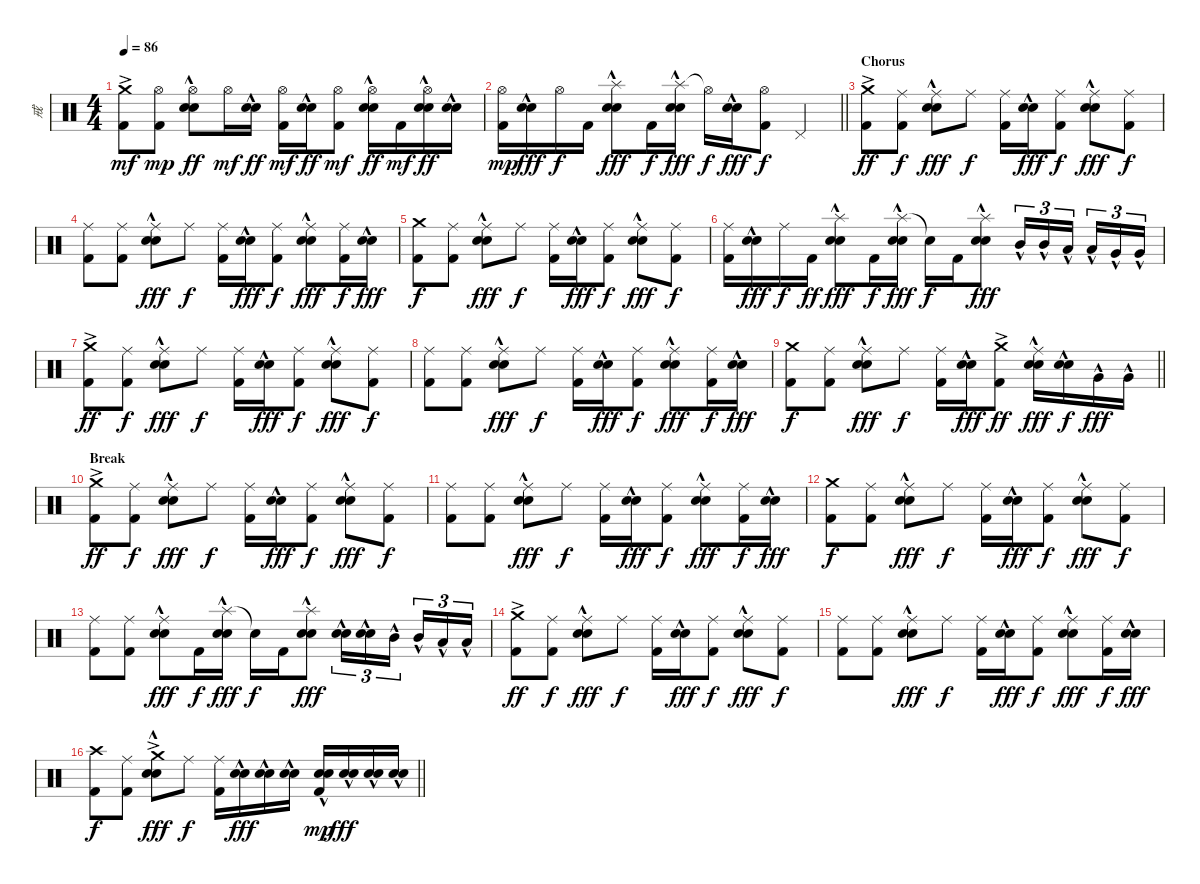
\track ("戒" "戒") {instrument percussion}
\staff {score}
\articulation defaults
\ts (4 4)
\tempo 86
\clef neutral
\ks c
("Crash medium (hit)"{ac} "Kick (hit) 2").8{dy mf} ("Hi-Hat (open)" "Kick (hit) 2").8{dy mp} ("Hi-Hat (open)" "Electric Snare (hit)"{hac} "Snare (hit) 2"{hac}).8{dy ff} "Hi-Hat (open)".16{dy mf} ("Electric Snare (hit)"{hac} "Snare (hit) 2"{hac}).16{dy ff} ("Hi-Hat (open)" "Kick (hit) 2").16{dy mf} ("Electric Snare (hit)"{hac} "Snare (hit) 2"{hac}).16{dy ff} ("Hi-Hat (open)" "Kick (hit) 2").8{dy mf} ("Hi-Hat (open)" "Electric Snare (hit)"{hac} "Snare (hit) 2"{hac}).16{dy ff} "Kick (hit) 2".16{dy mf} ("Hi-Hat (open)" "Electric Snare (hit)"{hac} "Snare (hit) 2"{hac}).16{dy ff} ("Electric Snare (hit)"{hac} "Snare (hit) 2"{hac}).16 |
\barLineRight lightlight
("Hi-Hat (open)" "Kick (hit) 2").16{dy mp} ("Electric Snare (hit)"{hac} "Snare (hit) 2"{hac}).16{dy fff} "Hi-Hat (open)".16{dy f} "Kick (hit) 2".16 ("Splash (hit)"{hac} "Electric Snare (hit)"{hac} "Snare (hit) 2"{hac}).8{dy fff} "Kick (hit) 2".16{dy f} ("Splash (hit)"{hac} "Electric Snare (hit)"{hac} "Snare (hit) 2"{hac}).16{dy fff} "Hi-Hat (open)"{t}.16{dy f} ("Electric Snare (hit)"{hac} "Snare (hit) 2"{hac}).16{dy fff} ("Hi-Hat (open)" "Kick (hit) 2").8{dy f} "Pedal Hi-Hat (hit)".4 |
\section ("" "Chorus")
("Crash medium (hit)"{ac} "Kick (hit) 2").8{dy ff} ("Ride (middle)" "Kick (hit) 2").8{dy f} ("Ride (middle)" "Electric Snare (hit)"{hac} "Snare (hit) 2"{hac}).8{dy fff} "Ride (middle)".8{dy f} ("Ride (middle)" "Kick (hit) 2").16 ("Electric Snare (hit)"{hac} "Snare (hit) 2"{hac}).16{dy fff} ("Ride (middle)" "Kick (hit) 2").8{dy f} ("Ride (middle)" "Electric Snare (hit)"{hac} "Snare (hit) 2"{hac}).8{dy fff} ("Ride (middle)" "Kick (hit) 2").8{dy f} |
("Ride (middle)" "Kick (hit) 2").8 ("Ride (middle)" "Kick (hit) 2").8 ("Ride (middle)" "Electric Snare (hit)"{hac} "Snare (hit) 2"{hac}).8{dy fff} "Ride (middle)".8{dy f} ("Ride (middle)" "Kick (hit) 2").16 ("Electric Snare (hit)"{hac} "Snare (hit) 2"{hac}).16{dy fff} ("Ride (middle)" "Kick (hit) 2").8{dy f} ("Ride (middle)" "Electric Snare (hit)"{hac} "Snare (hit) 2"{hac}).8{dy fff} ("Ride (middle)" "Kick (hit) 2").16{dy f} ("Electric Snare (hit)"{hac} "Snare (hit) 2"{hac}).16{dy fff} |
("Crash medium (hit)" "Kick (hit) 2").8{dy f} ("Ride (middle)" "Kick (hit) 2").8 ("Ride (middle)" "Electric Snare (hit)"{hac} "Snare (hit) 2"{hac}).8{dy fff} "Ride (middle)".8{dy f} ("Ride (middle)" "Kick (hit) 2").16 ("Electric Snare (hit)"{hac} "Snare (hit) 2"{hac}).16{dy fff} ("Ride (middle)" "Kick (hit) 2").8{dy f} ("Ride (middle)" "Electric Snare (hit)"{hac} "Snare (hit) 2"{hac}).8{dy fff} ("Ride (middle)" "Kick (hit) 2").8{dy f} |
("Ride (middle)" "Kick (hit) 2").16 ("Electric Snare (hit)"{hac} "Snare (hit) 2"{hac}).16{dy fff} "Ride (middle)".16{dy f} "Kick (hit) 2".16{dy ff} ("Splash (hit)"{hac} "Electric Snare (hit)"{hac} "Snare (hit) 2"{hac}).8{dy fff} "Kick (hit) 2".16{dy f} ("Splash (hit)"{hac} "Electric Snare (hit)"{hac} "Snare (hit) 2"{hac}).16{dy fff} "Snare (hit)"{t}.16{dy f} "Kick (hit) 2".16 ("Splash (hit)"{hac} "Electric Snare (hit)"{hac} "Snare (hit) 2"{hac}).8{dy fff} "Mid Tom (hit)"{hac}.16{tu (3 2)} "Mid Tom (hit)"{hac}.16{tu (3 2)} "Low Tom (hit)"{hac}.16{tu (3 2) beam splitsecondary} "Low Tom (hit)"{hac}.16{tu (3 2)} "Very Low Tom (hit)"{hac}.16{tu (3 2)} "Very Low Tom (hit)"{hac}.16{tu (3 2)} |
("Crash medium (hit)"{ac} "Kick (hit) 2").8{dy ff} ("Ride (middle)" "Kick (hit) 2").8{dy f} ("Ride (middle)" "Electric Snare (hit)"{hac} "Snare (hit) 2"{hac}).8{dy fff} "Ride (middle)".8{dy f} ("Ride (middle)" "Kick (hit) 2").16 ("Electric Snare (hit)"{hac} "Snare (hit) 2"{hac}).16{dy fff} ("Ride (middle)" "Kick (hit) 2").8{dy f} ("Ride (middle)" "Electric Snare (hit)"{hac} "Snare (hit) 2"{hac}).8{dy fff} ("Ride (middle)" "Kick (hit) 2").8{dy f} |
("Ride (middle)" "Kick (hit) 2").8 ("Ride (middle)" "Kick (hit) 2").8 ("Ride (middle)" "Electric Snare (hit)"{hac} "Snare (hit) 2"{hac}).8{dy fff} "Ride (middle)".8{dy f} ("Ride (middle)" "Kick (hit) 2").16 ("Electric Snare (hit)"{hac} "Snare (hit) 2"{hac}).16{dy fff} ("Ride (middle)" "Kick (hit) 2").8{dy f} ("Ride (middle)" "Electric Snare (hit)"{hac} "Snare (hit) 2"{hac}).8{dy fff} ("Ride (middle)" "Kick (hit) 2").16{dy f} ("Electric Snare (hit)"{hac} "Snare (hit) 2"{hac}).16{dy fff} |
\barLineRight lightlight
("Crash medium (hit)" "Kick (hit) 2").8{dy f} ("Ride (middle)" "Kick (hit) 2").8 ("Ride (middle)" "Electric Snare (hit)"{hac} "Snare (hit) 2"{hac}).8{dy fff} "Ride (middle)".8{dy f} ("Ride (middle)" "Kick (hit) 2").16 ("Electric Snare (hit)"{hac} "Snare (hit) 2"{hac}).16{dy fff} ("Crash medium (hit)"{ac} "Kick (hit) 2").8{dy ff} ("Ride (middle)" "Electric Snare (hit)"{hac} "Snare (hit) 2"{hac}).16{dy fff} ("Electric Snare (hit)"{hac} "Snare (hit) 2"{hac}).16{dy f} "Very Low Tom (hit)"{hac}.16{dy fff} "Very Low Tom (hit)"{hac}.16 |
\section ("" "Break")
("Crash medium (hit)"{ac} "Kick (hit) 2").8{dy ff} ("Ride (middle)" "Kick (hit) 2").8{dy f} ("Ride (middle)" "Electric Snare (hit)"{hac} "Snare (hit) 2"{hac}).8{dy fff} "Ride (middle)".8{dy f} ("Ride (middle)" "Kick (hit) 2").16 ("Electric Snare (hit)"{hac} "Snare (hit) 2"{hac}).16{dy fff} ("Ride (middle)" "Kick (hit) 2").8{dy f} ("Ride (middle)" "Electric Snare (hit)"{hac} "Snare (hit) 2"{hac}).8{dy fff} ("Ride (middle)" "Kick (hit) 2").8{dy f} |
("Ride (middle)" "Kick (hit) 2").8 ("Ride (middle)" "Kick (hit) 2").8 ("Ride (middle)" "Electric Snare (hit)"{hac} "Snare (hit) 2"{hac}).8{dy fff} "Ride (middle)".8{dy f} ("Ride (middle)" "Kick (hit) 2").16 ("Electric Snare (hit)"{hac} "Snare (hit) 2"{hac}).16{dy fff} ("Ride (middle)" "Kick (hit) 2").8{dy f} ("Ride (middle)" "Electric Snare (hit)"{hac} "Snare (hit) 2"{hac}).8{dy fff} ("Ride (middle)" "Kick (hit) 2").16{dy f} ("Electric Snare (hit)"{hac} "Snare (hit) 2"{hac}).16{dy fff} |
("Crash medium (hit)" "Kick (hit) 2").8{dy f} ("Ride (middle)" "Kick (hit) 2").8 ("Ride (middle)" "Electric Snare (hit)"{hac} "Snare (hit) 2"{hac}).8{dy fff} "Ride (middle)".8{dy f} ("Ride (middle)" "Kick (hit) 2").16 ("Electric Snare (hit)"{hac} "Snare (hit) 2"{hac}).16{dy fff} ("Ride (middle)" "Kick (hit) 2").8{dy f} ("Ride (middle)" "Electric Snare (hit)"{hac} "Snare (hit) 2"{hac}).8{dy fff} ("Ride (middle)" "Kick (hit) 2").8{dy f} |
("Ride (middle)" "Kick (hit) 2").8 ("Ride (middle)" "Kick (hit) 2").8 ("Ride (middle)" "Electric Snare (hit)"{hac} "Snare (hit) 2"{hac}).8{dy fff} "Kick (hit) 2".16{dy f} ("Splash (hit)"{hac} "Electric Snare (hit)"{hac} "Snare (hit) 2"{hac}).16{dy fff} "Snare (hit)"{t}.16{dy f} "Kick (hit) 2".16 ("Splash (hit)"{hac} "Electric Snare (hit)"{hac} "Snare (hit) 2"{hac}).8{dy fff} ("Electric Snare (hit)"{hac} "Snare (hit) 2").16{tu (3 2)} ("Electric Snare (hit)"{hac} "Snare (hit) 2").16{tu (3 2)} "Mid Tom (hit)"{hac}.16{tu (3 2) beam splitsecondary} "Mid Tom (hit)"{hac}.16{tu (3 2)} "Low Tom (hit)"{hac}.16{tu (3 2)} "Low Tom (hit)"{hac}.16{tu (3 2)} |
("Crash medium (hit)"{ac} "Kick (hit) 2").8{dy ff} ("Ride (middle)" "Kick (hit) 2").8{dy f} ("Ride (middle)" "Electric Snare (hit)"{hac} "Snare (hit) 2"{hac}).8{dy fff} "Ride (middle)".8{dy f} ("Ride (middle)" "Kick (hit) 2").16 ("Electric Snare (hit)"{hac} "Snare (hit) 2"{hac}).16{dy fff} ("Ride (middle)" "Kick (hit) 2").8{dy f} ("Ride (middle)" "Electric Snare (hit)"{hac} "Snare (hit) 2"{hac}).8{dy fff} ("Ride (middle)" "Kick (hit) 2").8{dy f} |
("Ride (middle)" "Kick (hit) 2").8 ("Ride (middle)" "Kick (hit) 2").8 ("Ride (middle)" "Electric Snare (hit)"{hac} "Snare (hit) 2"{hac}).8{dy fff} "Ride (middle)".8{dy f} ("Ride (middle)" "Kick (hit) 2").16 ("Electric Snare (hit)"{hac} "Snare (hit) 2"{hac}).16{dy fff} ("Ride (middle)" "Kick (hit) 2").8{dy f} ("Ride (middle)" "Electric Snare (hit)"{hac} "Snare (hit) 2"{hac}).8{dy fff} ("Ride (middle)" "Kick (hit) 2").16{dy f} ("Electric Snare (hit)"{hac} "Snare (hit) 2"{hac}).16{dy fff} |
\barLineRight lightlight
("Crash high (hit)" "Kick (hit) 2").8{dy f} ("Ride (middle)" "Kick (hit) 2").8 ("Crash medium (hit)"{ac} "Electric Snare (hit)"{hac} "Snare (hit) 2"{hac}).8{dy fff} "Ride (middle)".8{dy f} ("Ride (middle)" "Kick (hit) 2").16 ("Electric Snare (hit)"{hac} "Snare (hit) 2"{hac}).16{dy fff} ("Electric Snare (hit)"{hac} "Snare (hit) 2"{hac}).16 ("Electric Snare (hit)"{hac} "Snare (hit) 2"{hac}).16 ("Electric Snare (hit)"{hac} "Snare (hit) 2"{hac} "Kick (hit) 2").16{dy mp} ("Electric Snare (hit)"{hac} "Snare (hit) 2"{hac}).16{dy fff} ("Electric Snare (hit)"{hac} "Snare (hit) 2"{hac}).16 ("Electric Snare (hit)"{hac} "Snare (hit) 2"{hac}).16
